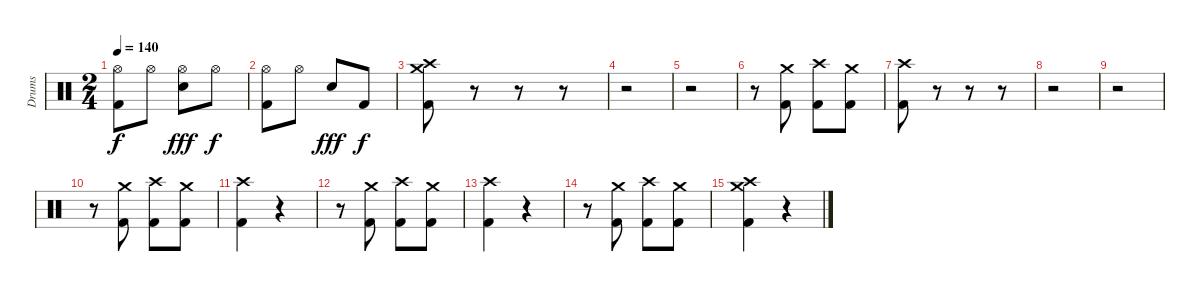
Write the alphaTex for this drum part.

\track ("Drums" "Drums") {instrument percussion}
\staff {score}
\articulation defaults
\ts (2 4)
\tempo 140
\clef neutral
\ks c
("Hi-Hat (open)" "Kick (hit) 2").8{dy f} "Hi-Hat (open)".8 ("Hi-Hat (open)" "Snare (hit) 2").8{dy fff} "Hi-Hat (open)".8{dy f} |
("Hi-Hat (open)" "Kick (hit) 2").8 "Hi-Hat (open)".8 "Snare (hit) 2".8{dy fff} "Kick (hit) 2".8{dy f} |
("Crash high (hit)" "Crash medium (hit)" "Kick (hit) 2").8 r.8 r.8 r.8 |
r.2 |
r.2 |
r.8 ("Crash medium (hit)" "Kick (hit) 2").8 ("Crash high (hit)" "Kick (hit) 2").8 ("Crash medium (hit)" "Kick (hit) 2").8 |
("Crash high (hit)" "Kick (hit) 2").8 r.8 r.8 r.8 |
r.2 |
r.2 |
r.8 ("Crash medium (hit)" "Kick (hit) 2").8 ("Crash high (hit)" "Kick (hit) 2").8 ("Crash medium (hit)" "Kick (hit) 2").8 |
("Crash high (hit)" "Kick (hit) 2").4 r.4 |
r.8 ("Crash medium (hit)" "Kick (hit) 2").8 ("Crash high (hit)" "Kick (hit) 2").8 ("Crash medium (hit)" "Kick (hit) 2").8 |
("Crash high (hit)" "Kick (hit) 2").4 r.4 |
r.8 ("Crash medium (hit)" "Kick (hit) 2").8 ("Crash high (hit)" "Kick (hit) 2").8 ("Crash medium (hit)" "Kick (hit) 2").8 |
("Crash high (hit)" "Crash medium (hit)" "Kick (hit) 2").4 r.4
